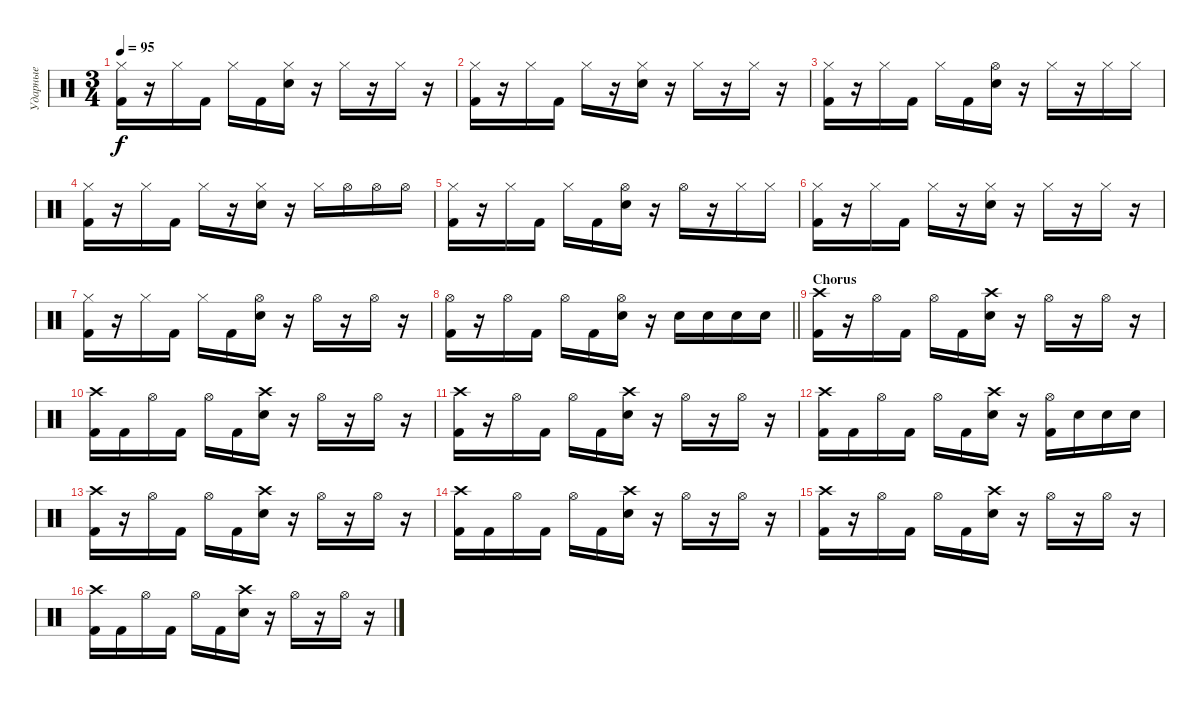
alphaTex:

\track ("Ударные" "Ударные") {instrument percussion}
\staff {score}
\articulation defaults
\ts (3 4)
\tempo 95
\clef neutral
\ks c
("Hi-Hat (closed)" "Kick (hit) 2").16{dy f} r.16 "Hi-Hat (closed)".16 "Kick (hit) 2".16 "Hi-Hat (closed)".16 "Kick (hit) 2".16 ("Hi-Hat (closed)" "Electric Snare (hit)").16 r.16 "Hi-Hat (closed)".16 r.16 "Hi-Hat (closed)".16 r.16 |
("Hi-Hat (closed)" "Kick (hit) 2").16 r.16 "Hi-Hat (closed)".16 "Kick (hit) 2".16 "Hi-Hat (closed)".16 r.16 ("Hi-Hat (closed)" "Electric Snare (hit)").16 r.16 "Hi-Hat (closed)".16 r.16 "Hi-Hat (closed)".16 r.16 |
("Hi-Hat (closed)" "Kick (hit) 2").16 r.16 "Hi-Hat (closed)".16 "Kick (hit) 2".16 "Hi-Hat (closed)".16 "Kick (hit) 2".16 ("Hi-Hat (open)" "Electric Snare (hit)").16 r.16 "Hi-Hat (closed)".16 r.16 "Hi-Hat (closed)".16 "Hi-Hat (closed)".16 |
("Hi-Hat (closed)" "Kick (hit) 2").16 r.16 "Hi-Hat (closed)".16 "Kick (hit) 2".16 "Hi-Hat (closed)".16 r.16 ("Hi-Hat (closed)" "Electric Snare (hit)").16 r.16 "Hi-Hat (closed)".16 "Hi-Hat (open)".16 "Hi-Hat (open)".16 "Hi-Hat (open)".16 |
("Hi-Hat (closed)" "Kick (hit) 2").16 r.16 "Hi-Hat (closed)".16 "Kick (hit) 2".16 "Hi-Hat (closed)".16 "Kick (hit) 2".16 ("Hi-Hat (open)" "Electric Snare (hit)").16 r.16 "Hi-Hat (open)".16 r.16 "Hi-Hat (closed)".16 "Hi-Hat (closed)".16 |
("Hi-Hat (closed)" "Kick (hit) 2").16 r.16 "Hi-Hat (closed)".16 "Kick (hit) 2".16 "Hi-Hat (closed)".16 r.16 ("Hi-Hat (closed)" "Electric Snare (hit)").16 r.16 "Hi-Hat (closed)".16 r.16 "Hi-Hat (closed)".16 r.16 |
("Hi-Hat (closed)" "Kick (hit) 2").16 r.16 "Hi-Hat (closed)".16 "Kick (hit) 2".16 "Hi-Hat (closed)".16 "Kick (hit) 2".16 ("Hi-Hat (open)" "Electric Snare (hit)").16 r.16 "Hi-Hat (open)".16 r.16 "Hi-Hat (open)".16 r.16 |
\barLineRight lightlight
("Hi-Hat (open)" "Kick (hit) 2").16 r.16 "Hi-Hat (open)".16 "Kick (hit) 2".16 "Hi-Hat (open)".16 "Kick (hit) 2".16 ("Hi-Hat (open)" "Electric Snare (hit)").16 r.16 "Electric Snare (hit)".16 "Electric Snare (hit)".16 "Electric Snare (hit)".16 "Electric Snare (hit)".16 |
\section ("" "Chorus")
("Crash high (hit)" "Kick (hit) 2").16 r.16 "Hi-Hat (open)".16 "Kick (hit) 2".16 "Hi-Hat (open)".16 "Kick (hit) 2".16 ("Crash high (hit)" "Electric Snare (hit)").16 r.16 "Hi-Hat (open)".16 r.16 "Hi-Hat (open)".16 r.16 |
("Crash high (hit)" "Kick (hit) 2").16 "Kick (hit) 2".16 "Hi-Hat (open)".16 "Kick (hit) 2".16 "Hi-Hat (open)".16 "Kick (hit) 2".16 ("Crash high (hit)" "Electric Snare (hit)").16 r.16 "Hi-Hat (open)".16 r.16 "Hi-Hat (open)".16 r.16 |
("Crash high (hit)" "Kick (hit) 2").16 r.16 "Hi-Hat (open)".16 "Kick (hit) 2".16 "Hi-Hat (open)".16 "Kick (hit) 2".16 ("Crash high (hit)" "Electric Snare (hit)").16 r.16 "Hi-Hat (open)".16 r.16 "Hi-Hat (open)".16 r.16 |
("Crash high (hit)" "Kick (hit) 2").16 "Kick (hit) 2".16 "Hi-Hat (open)".16 "Kick (hit) 2".16 "Hi-Hat (open)".16 "Kick (hit) 2".16 ("Crash high (hit)" "Electric Snare (hit)").16 r.16 ("Hi-Hat (open)" "Kick (hit) 2").16 "Electric Snare (hit)".16 "Electric Snare (hit)".16 "Electric Snare (hit)".16 |
("Crash high (hit)" "Kick (hit) 2").16 r.16 "Hi-Hat (open)".16 "Kick (hit) 2".16 "Hi-Hat (open)".16 "Kick (hit) 2".16 ("Crash high (hit)" "Electric Snare (hit)").16 r.16 "Hi-Hat (open)".16 r.16 "Hi-Hat (open)".16 r.16 |
("Crash high (hit)" "Kick (hit) 2").16 "Kick (hit) 2".16 "Hi-Hat (open)".16 "Kick (hit) 2".16 "Hi-Hat (open)".16 "Kick (hit) 2".16 ("Crash high (hit)" "Electric Snare (hit)").16 r.16 "Hi-Hat (open)".16 r.16 "Hi-Hat (open)".16 r.16 |
("Crash high (hit)" "Kick (hit) 2").16 r.16 "Hi-Hat (open)".16 "Kick (hit) 2".16 "Hi-Hat (open)".16 "Kick (hit) 2".16 ("Crash high (hit)" "Electric Snare (hit)").16 r.16 "Hi-Hat (open)".16 r.16 "Hi-Hat (open)".16 r.16 |
("Crash high (hit)" "Kick (hit) 2").16 "Kick (hit) 2".16 "Hi-Hat (open)".16 "Kick (hit) 2".16 "Hi-Hat (open)".16 "Kick (hit) 2".16 ("Crash high (hit)" "Electric Snare (hit)").16 r.16 "Hi-Hat (open)".16 r.16 "Hi-Hat (open)".16 r.16
